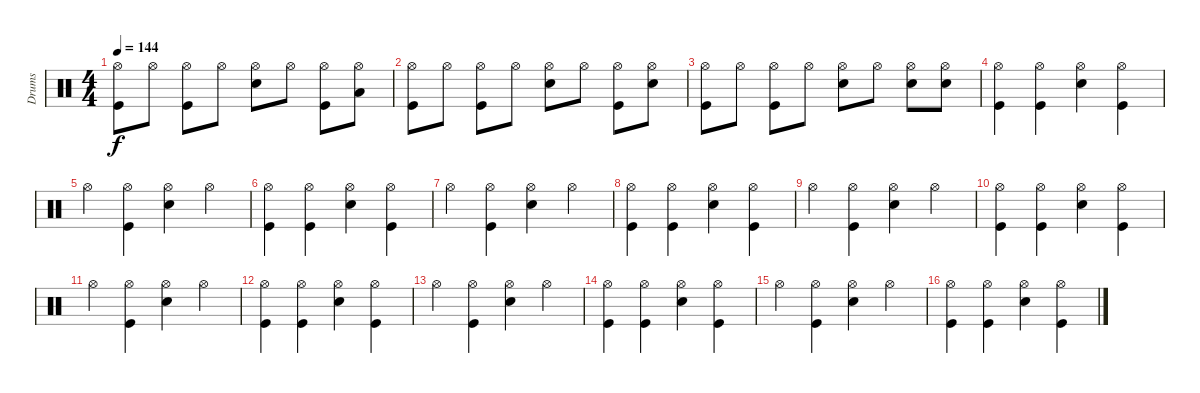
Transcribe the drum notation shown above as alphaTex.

\track ("Drums               " "Drums     ") {instrument percussion}
\staff {score}
\articulation defaults
\ts (4 4)
\tempo 144
\clef neutral
\ks c
("Hi-Hat (open)" "Kick (hit)").8{dy f} "Hi-Hat (open)".8 ("Hi-Hat (open)" "Kick (hit)").8 "Hi-Hat (open)".8 ("Hi-Hat (open)" "Snare (hit) 2").8 "Hi-Hat (open)".8 ("Hi-Hat (open)" "Kick (hit)").8 ("Hi-Hat (open)" "Low Tom (hit)").8 |
("Hi-Hat (open)" "Kick (hit)").8 "Hi-Hat (open)".8 ("Hi-Hat (open)" "Kick (hit)").8 "Hi-Hat (open)".8 ("Hi-Hat (open)" "Snare (hit) 2").8 "Hi-Hat (open)".8 ("Hi-Hat (open)" "Kick (hit)").8 ("Hi-Hat (open)" "Snare (hit) 2").8 |
("Hi-Hat (open)" "Kick (hit)").8 "Hi-Hat (open)".8 ("Hi-Hat (open)" "Kick (hit)").8 "Hi-Hat (open)".8 ("Hi-Hat (open)" "Snare (hit) 2").8 "Hi-Hat (open)".8 ("Hi-Hat (open)" "Snare (hit) 2").8 ("Hi-Hat (open)" "Snare (hit) 2").8 |
("Hi-Hat (open)" "Kick (hit)").4 ("Hi-Hat (open)" "Kick (hit)").4 ("Hi-Hat (open)" "Snare (hit) 2").4 ("Hi-Hat (open)" "Kick (hit)").4 |
"Hi-Hat (open)".4 ("Hi-Hat (open)" "Kick (hit)").4 ("Hi-Hat (open)" "Snare (hit) 2").4 "Hi-Hat (open)".4 |
("Hi-Hat (open)" "Kick (hit)").4 ("Hi-Hat (open)" "Kick (hit)").4 ("Hi-Hat (open)" "Snare (hit) 2").4 ("Hi-Hat (open)" "Kick (hit)").4 |
"Hi-Hat (open)".4 ("Hi-Hat (open)" "Kick (hit)").4 ("Hi-Hat (open)" "Snare (hit) 2").4 "Hi-Hat (open)".4 |
("Hi-Hat (open)" "Kick (hit)").4 ("Hi-Hat (open)" "Kick (hit)").4 ("Hi-Hat (open)" "Snare (hit) 2").4 ("Hi-Hat (open)" "Kick (hit)").4 |
"Hi-Hat (open)".4 ("Hi-Hat (open)" "Kick (hit)").4 ("Hi-Hat (open)" "Snare (hit) 2").4 "Hi-Hat (open)".4 |
("Hi-Hat (open)" "Kick (hit)").4 ("Hi-Hat (open)" "Kick (hit)").4 ("Hi-Hat (open)" "Snare (hit) 2").4 ("Hi-Hat (open)" "Kick (hit)").4 |
"Hi-Hat (open)".4 ("Hi-Hat (open)" "Kick (hit)").4 ("Hi-Hat (open)" "Snare (hit) 2").4 "Hi-Hat (open)".4 |
("Hi-Hat (open)" "Kick (hit)").4 ("Hi-Hat (open)" "Kick (hit)").4 ("Hi-Hat (open)" "Snare (hit) 2").4 ("Hi-Hat (open)" "Kick (hit)").4 |
"Hi-Hat (open)".4 ("Hi-Hat (open)" "Kick (hit)").4 ("Hi-Hat (open)" "Snare (hit) 2").4 "Hi-Hat (open)".4 |
("Hi-Hat (open)" "Kick (hit)").4 ("Hi-Hat (open)" "Kick (hit)").4 ("Hi-Hat (open)" "Snare (hit) 2").4 ("Hi-Hat (open)" "Kick (hit)").4 |
"Hi-Hat (open)".4 ("Hi-Hat (open)" "Kick (hit)").4 ("Hi-Hat (open)" "Snare (hit) 2").4 "Hi-Hat (open)".4 |
("Hi-Hat (open)" "Kick (hit)").4 ("Hi-Hat (open)" "Kick (hit)").4 ("Hi-Hat (open)" "Snare (hit) 2").4 ("Hi-Hat (open)" "Kick (hit)").4
